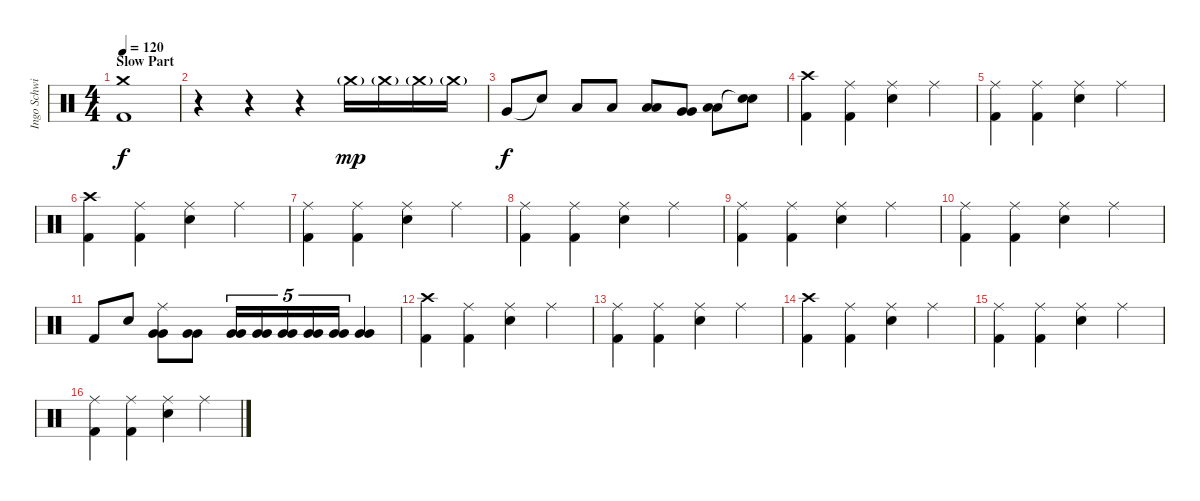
\track ("Ingo Schwichtenberg" "Ingo Schwi") {instrument percussion}
\staff {score}
\articulation defaults
\ts (4 4)
\section ("" "Slow Part")
\tempo 120
\clef neutral
\ks c
("Crash medium (hit)" "Kick (hit) 2").1{dy f} |
r.4 r.4 r.4 "Crash medium (hit)"{g}.16{dy mp} "Crash medium (hit)"{g}.16 "Crash medium (hit)"{g}.16 "Crash medium (hit)"{g}.16 |
"Very Low Tom (hit)".8{dy f} "Snare (hit)"{t}.8 "Low Tom (hit)".8 "Low Tom (hit)".8 ("Low Tom (hit)" "Low Tom (hit)").8 ("Very Low Tom (hit)" "Very Low Tom (hit)").8 ("Low Tom (hit)" "Low Tom (hit)").8 ("Snare (hit)"{t} "Snare (hit)"{t}).8 |
("Crash high (hit)" "Kick (hit) 2").4 ("Ride (middle)" "Kick (hit) 2").4 ("Ride (middle)" "Snare (hit) 2").4 "Ride (middle)".4 |
("Ride (middle)" "Kick (hit) 2").4 ("Ride (middle)" "Kick (hit) 2").4 ("Ride (middle)" "Snare (hit) 2").4 "Ride (middle)".4 |
("Crash high (hit)" "Kick (hit) 2").4 ("Ride (middle)" "Kick (hit) 2").4 ("Ride (middle)" "Snare (hit) 2").4 "Ride (middle)".4 |
("Ride (middle)" "Kick (hit) 2").4 ("Ride (middle)" "Kick (hit) 2").4 ("Ride (middle)" "Snare (hit) 2").4 "Ride (middle)".4 |
("Ride (middle)" "Kick (hit) 2").4 ("Ride (middle)" "Kick (hit) 2").4 ("Ride (middle)" "Snare (hit) 2").4 "Ride (middle)".4 |
("Ride (middle)" "Kick (hit) 2").4 ("Ride (middle)" "Kick (hit) 2").4 ("Ride (middle)" "Snare (hit) 2").4 "Ride (middle)".4 |
("Ride (middle)" "Kick (hit) 2").4 ("Ride (middle)" "Kick (hit) 2").4 ("Ride (middle)" "Snare (hit) 2").4 "Ride (middle)".4 |
"Kick (hit) 2".8 "Snare (hit) 2".8 ("Ride (middle)" "Very Low Tom (hit)" "Very Low Tom (hit)").8 ("Very Low Tom (hit)" "Very Low Tom (hit)").8 ("Very Low Tom (hit)" "Very Low Tom (hit)").16{tu (5 4)} ("Very Low Tom (hit)" "Very Low Tom (hit)").16{tu (5 4)} ("Very Low Tom (hit)" "Very Low Tom (hit)").16{tu (5 4)} ("Very Low Tom (hit)" "Very Low Tom (hit)").16{tu (5 4)} ("Very Low Tom (hit)" "Very Low Tom (hit)").16{tu (5 4)} ("Very Low Tom (hit)" "Very Low Tom (hit)").4 |
("Crash high (hit)" "Kick (hit) 2").4 ("Ride (middle)" "Kick (hit) 2").4 ("Ride (middle)" "Snare (hit) 2").4 "Ride (middle)".4 |
("Ride (middle)" "Kick (hit) 2").4 ("Ride (middle)" "Kick (hit) 2").4 ("Ride (middle)" "Snare (hit) 2").4 "Ride (middle)".4 |
("Crash high (hit)" "Kick (hit) 2").4 ("Ride (middle)" "Kick (hit) 2").4 ("Ride (middle)" "Snare (hit) 2").4 "Ride (middle)".4 |
("Ride (middle)" "Kick (hit) 2").4 ("Ride (middle)" "Kick (hit) 2").4 ("Ride (middle)" "Snare (hit) 2").4 "Ride (middle)".4 |
("Ride (middle)" "Kick (hit) 2").4 ("Ride (middle)" "Kick (hit) 2").4 ("Ride (middle)" "Snare (hit) 2").4 "Ride (middle)".4
